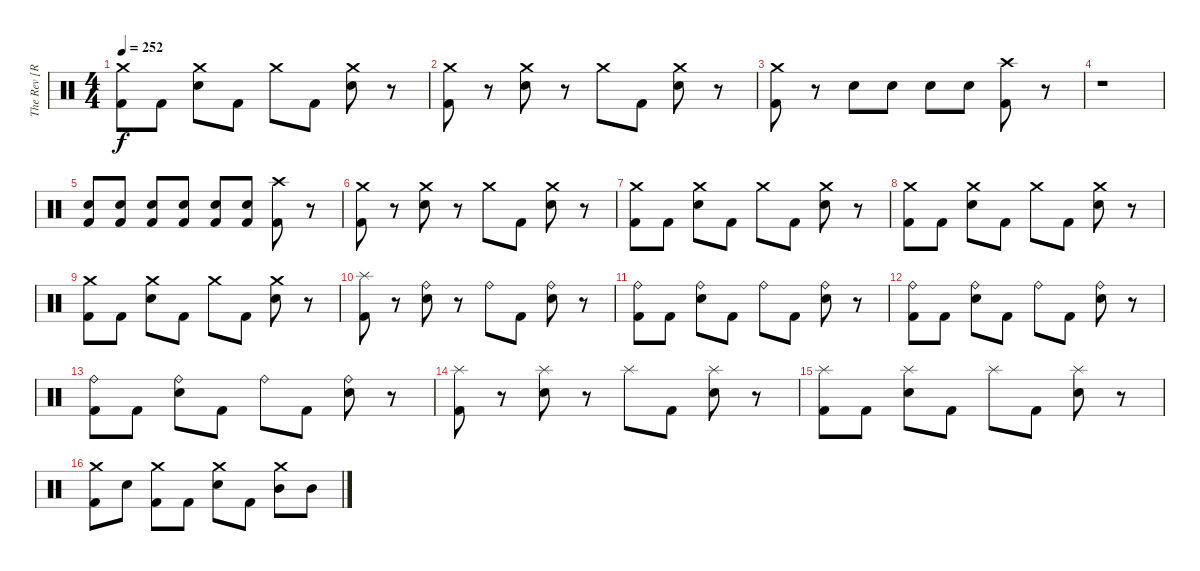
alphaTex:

\track ("The Rev [R.I.P]" "The Rev [R") {instrument percussion}
\staff {score}
\articulation defaults
\ts (4 4)
\tempo 252
\clef neutral
\ks c
("Crash medium (hit)" "Kick (hit) 2").8{dy f} "Kick (hit) 2".8 ("Crash medium (hit)" "Electric Snare (hit)").8 "Kick (hit) 2".8 "Crash medium (hit)".8 "Kick (hit) 2".8 ("Crash medium (hit)" "Electric Snare (hit)").8 r.8 |
("Crash medium (hit)" "Kick (hit) 2").8 r.8 ("Crash medium (hit)" "Electric Snare (hit)").8 r.8 "Crash medium (hit)".8 "Kick (hit) 2".8 ("Crash medium (hit)" "Electric Snare (hit)").8 r.8 |
("Crash medium (hit)" "Kick (hit) 2").8 r.8 "Electric Snare (hit)".8 "Electric Snare (hit)".8 "Electric Snare (hit)".8 "Electric Snare (hit)".8 ("Crash high (hit)" "Kick (hit) 2").8 r.8 |
r.1 |
("Electric Snare (hit)" "Kick (hit) 2").8 ("Electric Snare (hit)" "Kick (hit) 2").8 ("Electric Snare (hit)" "Kick (hit) 2").8 ("Electric Snare (hit)" "Kick (hit) 2").8 ("Electric Snare (hit)" "Kick (hit) 2").8 ("Electric Snare (hit)" "Kick (hit) 2").8 ("Crash high (hit)" "Kick (hit) 2").8 r.8 |
("Crash medium (hit)" "Kick (hit) 2").8 r.8 ("Crash medium (hit)" "Electric Snare (hit)").8 r.8 "Crash medium (hit)".8 "Kick (hit) 2".8 ("Crash medium (hit)" "Electric Snare (hit)").8 r.8 |
("Crash medium (hit)" "Kick (hit) 2").8 "Kick (hit) 2".8 ("Crash medium (hit)" "Electric Snare (hit)").8 "Kick (hit) 2".8 "Crash medium (hit)".8 "Kick (hit) 2".8 ("Crash medium (hit)" "Electric Snare (hit)").8 r.8 |
("Crash medium (hit)" "Kick (hit) 2").8 "Kick (hit) 2".8 ("Crash medium (hit)" "Electric Snare (hit)").8 "Kick (hit) 2".8 "Crash medium (hit)".8 "Kick (hit) 2".8 ("Crash medium (hit)" "Electric Snare (hit)").8 r.8 |
("Crash medium (hit)" "Kick (hit) 2").8 "Kick (hit) 2".8 ("Crash medium (hit)" "Electric Snare (hit)").8 "Kick (hit) 2".8 "Crash medium (hit)".8 "Kick (hit) 2".8 ("Crash medium (hit)" "Electric Snare (hit)").8 r.8 |
("Splash (hit)" "Kick (hit) 2").8 r.8 ("Ride (bell)" "Electric Snare (hit)").8 r.8 "Ride (bell)".8 "Kick (hit) 2".8 ("Ride (bell)" "Electric Snare (hit)").8 r.8 |
("Ride (bell)" "Kick (hit) 2").8 "Kick (hit) 2".8 ("Ride (bell)" "Electric Snare (hit)").8 "Kick (hit) 2".8 "Ride (bell)".8 "Kick (hit) 2".8 ("Ride (bell)" "Electric Snare (hit)").8 r.8 |
("Ride (bell)" "Kick (hit) 2").8 "Kick (hit) 2".8 ("Ride (bell)" "Electric Snare (hit)").8 "Kick (hit) 2".8 "Ride (bell)".8 "Kick (hit) 2".8 ("Ride (bell)" "Electric Snare (hit)").8 r.8 |
("Ride (bell)" "Kick (hit) 2").8 "Kick (hit) 2".8 ("Ride (bell)" "Electric Snare (hit)").8 "Kick (hit) 2".8 "Ride (bell)".8 "Kick (hit) 2".8 ("Ride (bell)" "Electric Snare (hit)").8 r.8 |
("Splash (hit)" "Kick (hit) 2").8 r.8 ("Splash (hit)" "Electric Snare (hit)").8 r.8 "Splash (hit)".8 "Kick (hit) 2".8 ("Splash (hit)" "Electric Snare (hit)").8 r.8 |
("Splash (hit)" "Kick (hit) 2").8 "Kick (hit) 2".8 ("Splash (hit)" "Electric Snare (hit)").8 "Kick (hit) 2".8 "Splash (hit)".8 "Kick (hit) 2".8 ("Splash (hit)" "Electric Snare (hit)").8 r.8 |
("Crash medium (hit)" "Kick (hit) 2").8 "Electric Snare (hit)".8 ("Crash medium (hit)" "Kick (hit) 2").8 "Kick (hit) 2".8 ("Crash medium (hit)" "Electric Snare (hit)").8 "Kick (hit) 2".8 ("Crash medium (hit)" "Mid Tom (hit)").8 "Mid Tom (hit)".8
